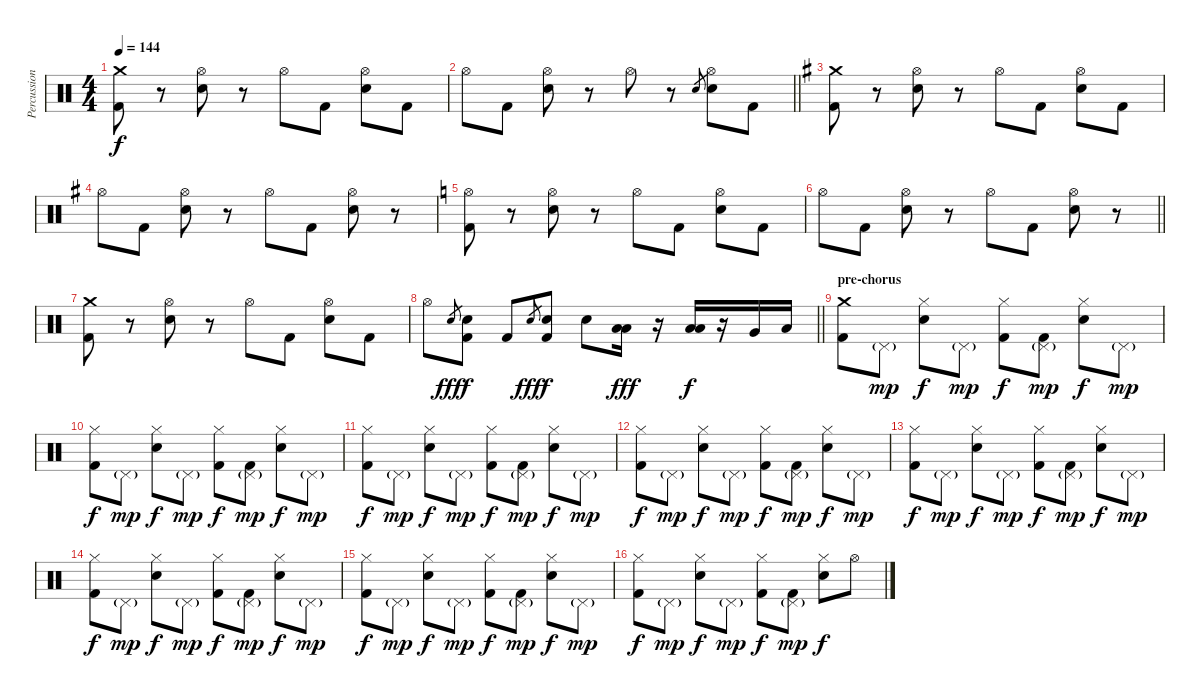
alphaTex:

\track ("Percussion" "Percussion") {instrument percussion}
\staff {score}
\articulation defaults
\ts (4 4)
\tempo 144
\clef neutral
\ks c
("Crash medium (hit)" "Kick (hit) 2").8{dy f} r.8 ("Hi-Hat (open)" "Electric Snare (hit)").8 r.8 "Hi-Hat (open)".8 "Kick (hit) 2".8 ("Hi-Hat (open)" "Electric Snare (hit)").8 "Kick (hit) 2".8 |
\barLineRight lightlight "Hi-Hat (open)".8 "Kick (hit) 2".8
("Hi-Hat (open)" "Electric Snare (hit)").8 r.8 "Hi-Hat (open)".8 r.8 "Electric Snare (hit)".8{gr} ("Hi-Hat (open)" "Electric Snare (hit)").8 "Kick (hit) 2".8 |
\ks g
("Crash medium (hit)" "Kick (hit) 2").8 r.8 ("Hi-Hat (open)" "Electric Snare (hit)").8 r.8 "Hi-Hat (open)".8 "Kick (hit) 2".8 ("Hi-Hat (open)" "Electric Snare (hit)").8 "Kick (hit) 2".8 |
"Hi-Hat (open)".8 "Kick (hit) 2".8 ("Hi-Hat (open)" "Electric Snare (hit)").8 r.8 "Hi-Hat (open)".8 "Kick (hit) 2".8 ("Hi-Hat (open)" "Electric Snare (hit)").8 r.8 |
\ks c
("Hi-Hat (open)" "Kick (hit) 2").8 r.8 ("Hi-Hat (open)" "Electric Snare (hit)").8 r.8 "Hi-Hat (open)".8 "Kick (hit) 2".8 ("Hi-Hat (open)" "Electric Snare (hit)").8 "Kick (hit) 2".8 |
\barLineRight lightlight "Hi-Hat (open)".8 "Kick (hit) 2".8
("Hi-Hat (open)" "Electric Snare (hit)").8 r.8 "Hi-Hat (open)".8 "Kick (hit) 2".8 ("Hi-Hat (open)" "Electric Snare (hit)").8 r.8 |
("Crash medium (hit)" "Kick (hit) 2").8 r.8 ("Hi-Hat (open)" "Electric Snare (hit)").8 r.8 "Hi-Hat (open)".8 "Kick (hit) 2".8 ("Hi-Hat (open)" "Electric Snare (hit)").8 "Kick (hit) 2".8 |
\barLineRight lightlight "Hi-Hat (open)".8 "Electric Snare (hit)".8{gr dy fff}
("Electric Snare (hit)" "Kick (hit) 2").8{dy f} "Kick (hit) 2".8 "Electric Snare (hit)".8{gr dy fff} ("Electric Snare (hit)" "Kick (hit) 2").8{dy f} "Electric Snare (hit)".8 ("Low Tom (hit)" "Low Tom (hit)").16{dy fff} r.16 ("Low Tom (hit)" "Low Tom (hit)").16{dy f} r.16 "Very Low Tom (hit)".16 "Low Tom (hit)".16 |
\section ("" "pre-chorus")
("Crash medium (hit)" "Kick (hit) 2").8 "Pedal Hi-Hat (hit)"{g}.8{dy mp} ("Hi-Hat (closed)" "Electric Snare (hit)").8{dy f} "Pedal Hi-Hat (hit)"{g}.8{dy mp} ("Hi-Hat (closed)" "Kick (hit) 2").8{dy f} ("Pedal Hi-Hat (hit)"{g} "Kick (hit) 2").8{dy mp} ("Hi-Hat (closed)" "Electric Snare (hit)").8{dy f} "Pedal Hi-Hat (hit)"{g}.8{dy mp} |
("Hi-Hat (closed)" "Kick (hit) 2").8{dy f} "Pedal Hi-Hat (hit)"{g}.8{dy mp} ("Hi-Hat (closed)" "Electric Snare (hit)").8{dy f} "Pedal Hi-Hat (hit)"{g}.8{dy mp} ("Hi-Hat (closed)" "Kick (hit) 2").8{dy f} ("Pedal Hi-Hat (hit)"{g} "Kick (hit) 2").8{dy mp} ("Hi-Hat (closed)" "Electric Snare (hit)").8{dy f} "Pedal Hi-Hat (hit)"{g}.8{dy mp} |
("Hi-Hat (closed)" "Kick (hit) 2").8{dy f} "Pedal Hi-Hat (hit)"{g}.8{dy mp} ("Hi-Hat (closed)" "Electric Snare (hit)").8{dy f} "Pedal Hi-Hat (hit)"{g}.8{dy mp} ("Hi-Hat (closed)" "Kick (hit) 2").8{dy f} ("Pedal Hi-Hat (hit)"{g} "Kick (hit) 2").8{dy mp} ("Hi-Hat (closed)" "Electric Snare (hit)").8{dy f} "Pedal Hi-Hat (hit)"{g}.8{dy mp} |
("Hi-Hat (closed)" "Kick (hit) 2").8{dy f} "Pedal Hi-Hat (hit)"{g}.8{dy mp} ("Hi-Hat (closed)" "Electric Snare (hit)").8{dy f} "Pedal Hi-Hat (hit)"{g}.8{dy mp} ("Hi-Hat (closed)" "Kick (hit) 2").8{dy f} ("Pedal Hi-Hat (hit)"{g} "Kick (hit) 2").8{dy mp} ("Hi-Hat (closed)" "Electric Snare (hit)").8{dy f} "Pedal Hi-Hat (hit)"{g}.8{dy mp} |
("Hi-Hat (closed)" "Kick (hit) 2").8{dy f} "Pedal Hi-Hat (hit)"{g}.8{dy mp} ("Hi-Hat (closed)" "Electric Snare (hit)").8{dy f} "Pedal Hi-Hat (hit)"{g}.8{dy mp} ("Hi-Hat (closed)" "Kick (hit) 2").8{dy f} ("Pedal Hi-Hat (hit)"{g} "Kick (hit) 2").8{dy mp} ("Hi-Hat (closed)" "Electric Snare (hit)").8{dy f} "Pedal Hi-Hat (hit)"{g}.8{dy mp} |
("Hi-Hat (closed)" "Kick (hit) 2").8{dy f} "Pedal Hi-Hat (hit)"{g}.8{dy mp} ("Hi-Hat (closed)" "Electric Snare (hit)").8{dy f} "Pedal Hi-Hat (hit)"{g}.8{dy mp} ("Hi-Hat (closed)" "Kick (hit) 2").8{dy f} ("Pedal Hi-Hat (hit)"{g} "Kick (hit) 2").8{dy mp} ("Hi-Hat (closed)" "Electric Snare (hit)").8{dy f} "Pedal Hi-Hat (hit)"{g}.8{dy mp} |
("Hi-Hat (closed)" "Kick (hit) 2").8{dy f} "Pedal Hi-Hat (hit)"{g}.8{dy mp} ("Hi-Hat (closed)" "Electric Snare (hit)").8{dy f} "Pedal Hi-Hat (hit)"{g}.8{dy mp} ("Hi-Hat (closed)" "Kick (hit) 2").8{dy f} ("Pedal Hi-Hat (hit)"{g} "Kick (hit) 2").8{dy mp} ("Hi-Hat (closed)" "Electric Snare (hit)").8{dy f} "Pedal Hi-Hat (hit)"{g}.8{dy mp} |
("Hi-Hat (closed)" "Kick (hit) 2").8{dy f} "Pedal Hi-Hat (hit)"{g}.8{dy mp} ("Hi-Hat (closed)" "Electric Snare (hit)").8{dy f} "Pedal Hi-Hat (hit)"{g}.8{dy mp} ("Hi-Hat (closed)" "Kick (hit) 2").8{dy f} ("Pedal Hi-Hat (hit)"{g} "Kick (hit) 2").8{dy mp} ("Hi-Hat (closed)" "Electric Snare (hit)").8{dy f} "Hi-Hat (open)".8
